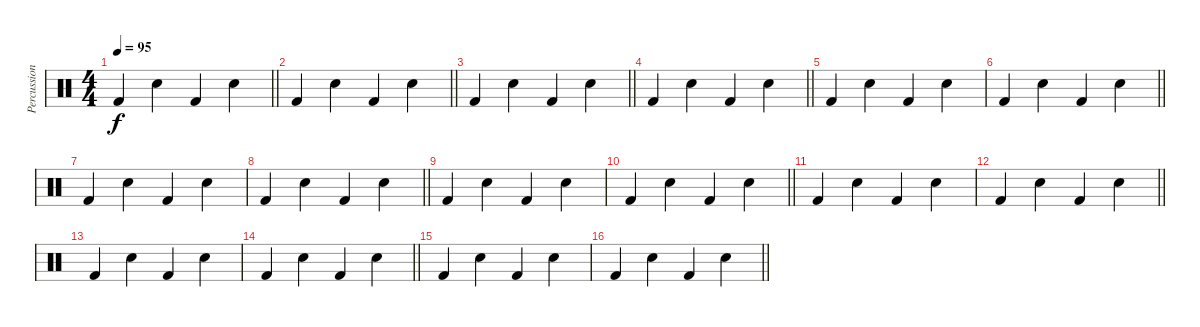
\track ("Percussion" "Percussion") {instrument percussion}
\staff {score}
\articulation defaults
\ts (4 4)
\tempo 95
\clef neutral
\barLineRight lightlight
\ks c "Kick (hit) 2".4{dy f} "Snare (hit) 2".4 "Kick (hit) 2".4 "Snare (hit) 2".4
|
\barLineRight lightlight "Kick (hit) 2".4 "Snare (hit) 2".4 "Kick (hit) 2".4 "Snare (hit) 2".4
|
\barLineRight lightlight "Kick (hit) 2".4 "Snare (hit) 2".4 "Kick (hit) 2".4 "Snare (hit) 2".4
|
\barLineRight lightlight "Kick (hit) 2".4 "Snare (hit) 2".4 "Kick (hit) 2".4 "Snare (hit) 2".4
|
"Kick (hit) 2".4 "Snare (hit) 2".4 "Kick (hit) 2".4 "Snare (hit) 2".4 |
\barLineRight lightlight "Kick (hit) 2".4 "Snare (hit) 2".4 "Kick (hit) 2".4 "Snare (hit) 2".4
|
"Kick (hit) 2".4 "Snare (hit) 2".4 "Kick (hit) 2".4 "Snare (hit) 2".4 |
\barLineRight lightlight "Kick (hit) 2".4 "Snare (hit) 2".4 "Kick (hit) 2".4 "Snare (hit) 2".4
|
"Kick (hit) 2".4 "Snare (hit) 2".4 "Kick (hit) 2".4 "Snare (hit) 2".4 |
\barLineRight lightlight "Kick (hit) 2".4 "Snare (hit) 2".4 "Kick (hit) 2".4 "Snare (hit) 2".4
|
"Kick (hit) 2".4 "Snare (hit) 2".4 "Kick (hit) 2".4 "Snare (hit) 2".4 |
\barLineRight lightlight "Kick (hit) 2".4 "Snare (hit) 2".4 "Kick (hit) 2".4 "Snare (hit) 2".4
|
"Kick (hit) 2".4 "Snare (hit) 2".4 "Kick (hit) 2".4 "Snare (hit) 2".4 |
\barLineRight lightlight "Kick (hit) 2".4 "Snare (hit) 2".4 "Kick (hit) 2".4 "Snare (hit) 2".4
|
"Kick (hit) 2".4 "Snare (hit) 2".4 "Kick (hit) 2".4 "Snare (hit) 2".4 |
\barLineRight lightlight "Kick (hit) 2".4 "Snare (hit) 2".4 "Kick (hit) 2".4 "Snare (hit) 2".4
